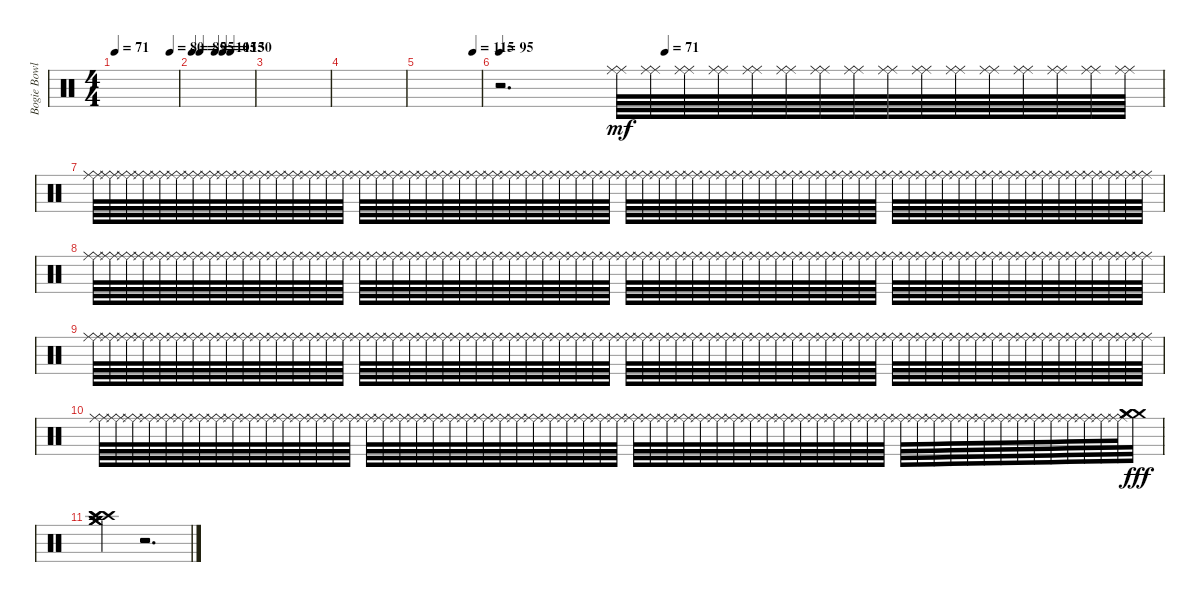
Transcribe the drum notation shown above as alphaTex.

\track ("Bogie Bowles" "Bogie Bowl") {instrument percussion}
\staff {score}
\articulation defaults
\ts (4 4)
\tempo 71
\tempo (80 0.875)
\clef neutral
\ks c
|
\tempo 85
\tempo (95 0.125)
\tempo (105 0.375)
\tempo (115 0.5)
\tempo (130 0.625)
|
|
|
\tempo (115 0.875)
|
\tempo 95
\tempo (71 0.25)
r.2{d volume 0} ("Ride (middle)" "Ride (middle)").64{dy mf volume 16} ("Ride (middle)" "Ride (middle)").64 ("Ride (middle)" "Ride (middle)").64 ("Ride (middle)" "Ride (middle)").64 ("Ride (middle)" "Ride (middle)").64 ("Ride (middle)" "Ride (middle)").64 ("Ride (middle)" "Ride (middle)").64 ("Ride (middle)" "Ride (middle)").64 ("Ride (middle)" "Ride (middle)").64 ("Ride (middle)" "Ride (middle)").64 ("Ride (middle)" "Ride (middle)").64 ("Ride (middle)" "Ride (middle)").64 ("Ride (middle)" "Ride (middle)").64 ("Ride (middle)" "Ride (middle)").64 ("Ride (middle)" "Ride (middle)").64 ("Ride (middle)" "Ride (middle)").64 |
("Ride (middle)" "Ride (middle)").64{volume 7} ("Ride (middle)" "Ride (middle)").64 ("Ride (middle)" "Ride (middle)").64 ("Ride (middle)" "Ride (middle)").64 ("Ride (middle)" "Ride (middle)").64 ("Ride (middle)" "Ride (middle)").64 ("Ride (middle)" "Ride (middle)").64 ("Ride (middle)" "Ride (middle)").64 ("Ride (middle)" "Ride (middle)").64 ("Ride (middle)" "Ride (middle)").64 ("Ride (middle)" "Ride (middle)").64 ("Ride (middle)" "Ride (middle)").64 ("Ride (middle)" "Ride (middle)").64 ("Ride (middle)" "Ride (middle)").64 ("Ride (middle)" "Ride (middle)").64 ("Ride (middle)" "Ride (middle)").64 ("Ride (middle)" "Ride (middle)").64 ("Ride (middle)" "Ride (middle)").64 ("Ride (middle)" "Ride (middle)").64 ("Ride (middle)" "Ride (middle)").64 ("Ride (middle)" "Ride (middle)").64 ("Ride (middle)" "Ride (middle)").64 ("Ride (middle)" "Ride (middle)").64 ("Ride (middle)" "Ride (middle)").64 ("Ride (middle)" "Ride (middle)").64 ("Ride (middle)" "Ride (middle)").64 ("Ride (middle)" "Ride (middle)").64 ("Ride (middle)" "Ride (middle)").64 ("Ride (middle)" "Ride (middle)").64 ("Ride (middle)" "Ride (middle)").64 ("Ride (middle)" "Ride (middle)").64 ("Ride (middle)" "Ride (middle)").64 ("Ride (middle)" "Ride (middle)").64 ("Ride (middle)" "Ride (middle)").64 ("Ride (middle)" "Ride (middle)").64 ("Ride (middle)" "Ride (middle)").64 ("Ride (middle)" "Ride (middle)").64 ("Ride (middle)" "Ride (middle)").64 ("Ride (middle)" "Ride (middle)").64 ("Ride (middle)" "Ride (middle)").64 ("Ride (middle)" "Ride (middle)").64 ("Ride (middle)" "Ride (middle)").64 ("Ride (middle)" "Ride (middle)").64 ("Ride (middle)" "Ride (middle)").64 ("Ride (middle)" "Ride (middle)").64 ("Ride (middle)" "Ride (middle)").64 ("Ride (middle)" "Ride (middle)").64 ("Ride (middle)" "Ride (middle)").64 ("Ride (middle)" "Ride (middle)").64 ("Ride (middle)" "Ride (middle)").64 ("Ride (middle)" "Ride (middle)").64 ("Ride (middle)" "Ride (middle)").64 ("Ride (middle)" "Ride (middle)").64 ("Ride (middle)" "Ride (middle)").64 ("Ride (middle)" "Ride (middle)").64 ("Ride (middle)" "Ride (middle)").64 ("Ride (middle)" "Ride (middle)").64 ("Ride (middle)" "Ride (middle)").64 ("Ride (middle)" "Ride (middle)").64 ("Ride (middle)" "Ride (middle)").64 ("Ride (middle)" "Ride (middle)").64 ("Ride (middle)" "Ride (middle)").64 ("Ride (middle)" "Ride (middle)").64 ("Ride (middle)" "Ride (middle)").64 |
("Ride (middle)" "Ride (middle)").64{volume 7} ("Ride (middle)" "Ride (middle)").64 ("Ride (middle)" "Ride (middle)").64 ("Ride (middle)" "Ride (middle)").64 ("Ride (middle)" "Ride (middle)").64 ("Ride (middle)" "Ride (middle)").64 ("Ride (middle)" "Ride (middle)").64 ("Ride (middle)" "Ride (middle)").64 ("Ride (middle)" "Ride (middle)").64 ("Ride (middle)" "Ride (middle)").64 ("Ride (middle)" "Ride (middle)").64 ("Ride (middle)" "Ride (middle)").64 ("Ride (middle)" "Ride (middle)").64 ("Ride (middle)" "Ride (middle)").64 ("Ride (middle)" "Ride (middle)").64 ("Ride (middle)" "Ride (middle)").64 ("Ride (middle)" "Ride (middle)").64 ("Ride (middle)" "Ride (middle)").64 ("Ride (middle)" "Ride (middle)").64 ("Ride (middle)" "Ride (middle)").64 ("Ride (middle)" "Ride (middle)").64 ("Ride (middle)" "Ride (middle)").64 ("Ride (middle)" "Ride (middle)").64 ("Ride (middle)" "Ride (middle)").64 ("Ride (middle)" "Ride (middle)").64 ("Ride (middle)" "Ride (middle)").64 ("Ride (middle)" "Ride (middle)").64 ("Ride (middle)" "Ride (middle)").64 ("Ride (middle)" "Ride (middle)").64 ("Ride (middle)" "Ride (middle)").64 ("Ride (middle)" "Ride (middle)").64 ("Ride (middle)" "Ride (middle)").64 ("Ride (middle)" "Ride (middle)").64 ("Ride (middle)" "Ride (middle)").64 ("Ride (middle)" "Ride (middle)").64 ("Ride (middle)" "Ride (middle)").64 ("Ride (middle)" "Ride (middle)").64 ("Ride (middle)" "Ride (middle)").64 ("Ride (middle)" "Ride (middle)").64 ("Ride (middle)" "Ride (middle)").64 ("Ride (middle)" "Ride (middle)").64 ("Ride (middle)" "Ride (middle)").64 ("Ride (middle)" "Ride (middle)").64 ("Ride (middle)" "Ride (middle)").64 ("Ride (middle)" "Ride (middle)").64 ("Ride (middle)" "Ride (middle)").64 ("Ride (middle)" "Ride (middle)").64 ("Ride (middle)" "Ride (middle)").64 ("Ride (middle)" "Ride (middle)").64 ("Ride (middle)" "Ride (middle)").64 ("Ride (middle)" "Ride (middle)").64 ("Ride (middle)" "Ride (middle)").64 ("Ride (middle)" "Ride (middle)").64 ("Ride (middle)" "Ride (middle)").64 ("Ride (middle)" "Ride (middle)").64 ("Ride (middle)" "Ride (middle)").64 ("Ride (middle)" "Ride (middle)").64 ("Ride (middle)" "Ride (middle)").64 ("Ride (middle)" "Ride (middle)").64 ("Ride (middle)" "Ride (middle)").64 ("Ride (middle)" "Ride (middle)").64 ("Ride (middle)" "Ride (middle)").64 ("Ride (middle)" "Ride (middle)").64 ("Ride (middle)" "Ride (middle)").64 |
("Ride (middle)" "Ride (middle)").64 ("Ride (middle)" "Ride (middle)").64 ("Ride (middle)" "Ride (middle)").64 ("Ride (middle)" "Ride (middle)").64 ("Ride (middle)" "Ride (middle)").64 ("Ride (middle)" "Ride (middle)").64 ("Ride (middle)" "Ride (middle)").64 ("Ride (middle)" "Ride (middle)").64 ("Ride (middle)" "Ride (middle)").64 ("Ride (middle)" "Ride (middle)").64 ("Ride (middle)" "Ride (middle)").64 ("Ride (middle)" "Ride (middle)").64 ("Ride (middle)" "Ride (middle)").64 ("Ride (middle)" "Ride (middle)").64 ("Ride (middle)" "Ride (middle)").64 ("Ride (middle)" "Ride (middle)").64 ("Ride (middle)" "Ride (middle)").64 ("Ride (middle)" "Ride (middle)").64 ("Ride (middle)" "Ride (middle)").64 ("Ride (middle)" "Ride (middle)").64 ("Ride (middle)" "Ride (middle)").64 ("Ride (middle)" "Ride (middle)").64 ("Ride (middle)" "Ride (middle)").64 ("Ride (middle)" "Ride (middle)").64 ("Ride (middle)" "Ride (middle)").64 ("Ride (middle)" "Ride (middle)").64 ("Ride (middle)" "Ride (middle)").64 ("Ride (middle)" "Ride (middle)").64 ("Ride (middle)" "Ride (middle)").64 ("Ride (middle)" "Ride (middle)").64 ("Ride (middle)" "Ride (middle)").64 ("Ride (middle)" "Ride (middle)").64 ("Ride (middle)" "Ride (middle)").64 ("Ride (middle)" "Ride (middle)").64 ("Ride (middle)" "Ride (middle)").64 ("Ride (middle)" "Ride (middle)").64 ("Ride (middle)" "Ride (middle)").64 ("Ride (middle)" "Ride (middle)").64 ("Ride (middle)" "Ride (middle)").64 ("Ride (middle)" "Ride (middle)").64 ("Ride (middle)" "Ride (middle)").64 ("Ride (middle)" "Ride (middle)").64 ("Ride (middle)" "Ride (middle)").64 ("Ride (middle)" "Ride (middle)").64 ("Ride (middle)" "Ride (middle)").64 ("Ride (middle)" "Ride (middle)").64 ("Ride (middle)" "Ride (middle)").64 ("Ride (middle)" "Ride (middle)").64 ("Ride (middle)" "Ride (middle)").64 ("Ride (middle)" "Ride (middle)").64 ("Ride (middle)" "Ride (middle)").64 ("Ride (middle)" "Ride (middle)").64 ("Ride (middle)" "Ride (middle)").64 ("Ride (middle)" "Ride (middle)").64 ("Ride (middle)" "Ride (middle)").64 ("Ride (middle)" "Ride (middle)").64 ("Ride (middle)" "Ride (middle)").64 ("Ride (middle)" "Ride (middle)").64 ("Ride (middle)" "Ride (middle)").64 ("Ride (middle)" "Ride (middle)").64 ("Ride (middle)" "Ride (middle)").64 ("Ride (middle)" "Ride (middle)").64 ("Ride (middle)" "Ride (middle)").64 ("Ride (middle)" "Ride (middle)").64 |
("Ride (middle)" "Ride (middle)").64 ("Ride (middle)" "Ride (middle)").64 ("Ride (middle)" "Ride (middle)").64 ("Ride (middle)" "Ride (middle)").64 ("Ride (middle)" "Ride (middle)").64 ("Ride (middle)" "Ride (middle)").64 ("Ride (middle)" "Ride (middle)").64 ("Ride (middle)" "Ride (middle)").64 ("Ride (middle)" "Ride (middle)").64 ("Ride (middle)" "Ride (middle)").64 ("Ride (middle)" "Ride (middle)").64 ("Ride (middle)" "Ride (middle)").64 ("Ride (middle)" "Ride (middle)").64 ("Ride (middle)" "Ride (middle)").64 ("Ride (middle)" "Ride (middle)").64 ("Ride (middle)" "Ride (middle)").64 ("Ride (middle)" "Ride (middle)").64{volume 0} ("Ride (middle)" "Ride (middle)").64 ("Ride (middle)" "Ride (middle)").64 ("Ride (middle)" "Ride (middle)").64 ("Ride (middle)" "Ride (middle)").64 ("Ride (middle)" "Ride (middle)").64 ("Ride (middle)" "Ride (middle)").64 ("Ride (middle)" "Ride (middle)").64 ("Ride (middle)" "Ride (middle)").64 ("Ride (middle)" "Ride (middle)").64 ("Ride (middle)" "Ride (middle)").64 ("Ride (middle)" "Ride (middle)").64 ("Ride (middle)" "Ride (middle)").64 ("Ride (middle)" "Ride (middle)").64 ("Ride (middle)" "Ride (middle)").64 ("Ride (middle)" "Ride (middle)").64 ("Ride (middle)" "Ride (middle)").64 ("Ride (middle)" "Ride (middle)").64 ("Ride (middle)" "Ride (middle)").64 ("Ride (middle)" "Ride (middle)").64 ("Ride (middle)" "Ride (middle)").64 ("Ride (middle)" "Ride (middle)").64 ("Ride (middle)" "Ride (middle)").64 ("Ride (middle)" "Ride (middle)").64 ("Ride (middle)" "Ride (middle)").64 ("Ride (middle)" "Ride (middle)").64 ("Ride (middle)" "Ride (middle)").64 ("Ride (middle)" "Ride (middle)").64 ("Ride (middle)" "Ride (middle)").64 ("Ride (middle)" "Ride (middle)").64 ("Ride (middle)" "Ride (middle)").64 ("Ride (middle)" "Ride (middle)").64 ("Ride (middle)" "Ride (middle)").64 ("Ride (middle)" "Ride (middle)").64 ("Ride (middle)" "Ride (middle)").64 ("Ride (middle)" "Ride (middle)").64 ("Ride (middle)" "Ride (middle)").64 ("Ride (middle)" "Ride (middle)").64 ("Ride (middle)" "Ride (middle)").64 ("Ride (middle)" "Ride (middle)").64 ("Ride (middle)" "Ride (middle)").64 ("Ride (middle)" "Ride (middle)").64 ("Ride (middle)" "Ride (middle)").64 ("Ride (middle)" "Ride (middle)").64 ("Ride (middle)" "Ride (middle)").64 ("Ride (middle)" "Ride (middle)").64 ("Crash medium (hit)" "Crash medium (hit)" "Crash medium (hit)").32{dy fff volume 16} |
("Crash medium (hit)" "Crash medium (hit)" "Crash medium (hit)" "Crash high (hit)" "Crash high (hit)" "Crash high (hit)").4 r.2{d}
